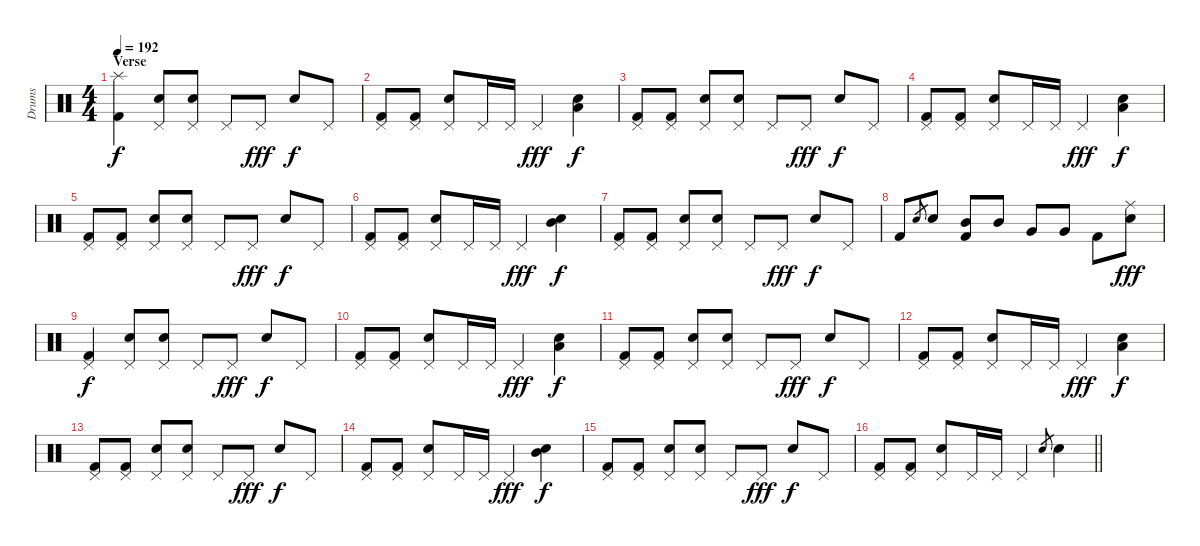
\track ("Drums" "Drums") {instrument percussion}
\staff {score}
\articulation defaults
\ts (4 4)
\section ("" "Verse")
\tempo 192
\clef neutral
\ks c
("Splash (hit)" "Kick (hit) 2").4{dy f} ("Pedal Hi-Hat (hit)" "Electric Snare (hit)").8 ("Pedal Hi-Hat (hit)" "Electric Snare (hit)").8 "Pedal Hi-Hat (hit)".8 "Pedal Hi-Hat (hit)".8{dy fff} "Electric Snare (hit)".8{dy f} "Pedal Hi-Hat (hit)".8 |
("Pedal Hi-Hat (hit)" "Kick (hit) 2").8 ("Pedal Hi-Hat (hit)" "Kick (hit) 2").8 ("Pedal Hi-Hat (hit)" "Electric Snare (hit)").8 "Pedal Hi-Hat (hit)".16 "Pedal Hi-Hat (hit)".16 "Pedal Hi-Hat (hit)".4{dy fff} ("Low Tom (hit)" "Electric Snare (hit)").4{dy f} |
("Pedal Hi-Hat (hit)" "Kick (hit) 2").8 ("Pedal Hi-Hat (hit)" "Kick (hit) 2").8 ("Pedal Hi-Hat (hit)" "Electric Snare (hit)").8 ("Pedal Hi-Hat (hit)" "Electric Snare (hit)").8 "Pedal Hi-Hat (hit)".8 "Pedal Hi-Hat (hit)".8{dy fff} "Electric Snare (hit)".8{dy f} "Pedal Hi-Hat (hit)".8 |
("Pedal Hi-Hat (hit)" "Kick (hit) 2").8 ("Pedal Hi-Hat (hit)" "Kick (hit) 2").8 ("Pedal Hi-Hat (hit)" "Electric Snare (hit)").8 "Pedal Hi-Hat (hit)".16 "Pedal Hi-Hat (hit)".16 "Pedal Hi-Hat (hit)".4{dy fff} ("Low Tom (hit)" "Electric Snare (hit)").4{dy f} |
("Pedal Hi-Hat (hit)" "Kick (hit) 2").8 ("Pedal Hi-Hat (hit)" "Kick (hit) 2").8 ("Pedal Hi-Hat (hit)" "Electric Snare (hit)").8 ("Pedal Hi-Hat (hit)" "Electric Snare (hit)").8 "Pedal Hi-Hat (hit)".8 "Pedal Hi-Hat (hit)".8{dy fff} "Electric Snare (hit)".8{dy f} "Pedal Hi-Hat (hit)".8 |
("Pedal Hi-Hat (hit)" "Kick (hit) 2").8 ("Pedal Hi-Hat (hit)" "Kick (hit) 2").8 ("Pedal Hi-Hat (hit)" "Electric Snare (hit)").8 "Pedal Hi-Hat (hit)".16 "Pedal Hi-Hat (hit)".16 "Pedal Hi-Hat (hit)".4{dy fff} ("Mid Tom (hit)" "Electric Snare (hit)").4{dy f} |
("Pedal Hi-Hat (hit)" "Kick (hit) 2").8 ("Pedal Hi-Hat (hit)" "Kick (hit) 2").8 ("Pedal Hi-Hat (hit)" "Electric Snare (hit)").8 ("Pedal Hi-Hat (hit)" "Electric Snare (hit)").8 "Pedal Hi-Hat (hit)".8 "Pedal Hi-Hat (hit)".8{dy fff} "Electric Snare (hit)".8{dy f} "Pedal Hi-Hat (hit)".8 |
"Kick (hit) 2".8 "Electric Snare (hit)".8{gr} "Electric Snare (hit)".8 ("Mid Tom (hit)" "Kick (hit) 2").8 "Mid Tom (hit)".8 "Very Low Tom (hit)".8 "Very Low Tom (hit)".8 "Kick (hit) 2".8 ("Ride (middle)" "Electric Snare (hit)").8{dy fff} |
("Pedal Hi-Hat (hit)" "Kick (hit) 2").4{dy f} ("Pedal Hi-Hat (hit)" "Electric Snare (hit)").8 ("Pedal Hi-Hat (hit)" "Electric Snare (hit)").8 "Pedal Hi-Hat (hit)".8 "Pedal Hi-Hat (hit)".8{dy fff} "Electric Snare (hit)".8{dy f} "Pedal Hi-Hat (hit)".8 |
("Pedal Hi-Hat (hit)" "Kick (hit) 2").8 ("Pedal Hi-Hat (hit)" "Kick (hit) 2").8 ("Pedal Hi-Hat (hit)" "Electric Snare (hit)").8 "Pedal Hi-Hat (hit)".16 "Pedal Hi-Hat (hit)".16 "Pedal Hi-Hat (hit)".4{dy fff} ("Low Tom (hit)" "Electric Snare (hit)").4{dy f} |
("Pedal Hi-Hat (hit)" "Kick (hit) 2").8 ("Pedal Hi-Hat (hit)" "Kick (hit) 2").8 ("Pedal Hi-Hat (hit)" "Electric Snare (hit)").8 ("Pedal Hi-Hat (hit)" "Electric Snare (hit)").8 "Pedal Hi-Hat (hit)".8 "Pedal Hi-Hat (hit)".8{dy fff} "Electric Snare (hit)".8{dy f} "Pedal Hi-Hat (hit)".8 |
("Pedal Hi-Hat (hit)" "Kick (hit) 2").8 ("Pedal Hi-Hat (hit)" "Kick (hit) 2").8 ("Pedal Hi-Hat (hit)" "Electric Snare (hit)").8 "Pedal Hi-Hat (hit)".16 "Pedal Hi-Hat (hit)".16 "Pedal Hi-Hat (hit)".4{dy fff} ("Low Tom (hit)" "Electric Snare (hit)").4{dy f} |
("Pedal Hi-Hat (hit)" "Kick (hit) 2").8 ("Pedal Hi-Hat (hit)" "Kick (hit) 2").8 ("Pedal Hi-Hat (hit)" "Electric Snare (hit)").8 ("Pedal Hi-Hat (hit)" "Electric Snare (hit)").8 "Pedal Hi-Hat (hit)".8 "Pedal Hi-Hat (hit)".8{dy fff} "Electric Snare (hit)".8{dy f} "Pedal Hi-Hat (hit)".8 |
("Pedal Hi-Hat (hit)" "Kick (hit) 2").8 ("Pedal Hi-Hat (hit)" "Kick (hit) 2").8 ("Pedal Hi-Hat (hit)" "Electric Snare (hit)").8 "Pedal Hi-Hat (hit)".16 "Pedal Hi-Hat (hit)".16 "Pedal Hi-Hat (hit)".4{dy fff} ("Mid Tom (hit)" "Electric Snare (hit)").4{dy f} |
("Pedal Hi-Hat (hit)" "Kick (hit) 2").8 ("Pedal Hi-Hat (hit)" "Kick (hit) 2").8 ("Pedal Hi-Hat (hit)" "Electric Snare (hit)").8 ("Pedal Hi-Hat (hit)" "Electric Snare (hit)").8 "Pedal Hi-Hat (hit)".8 "Pedal Hi-Hat (hit)".8{dy fff} "Electric Snare (hit)".8{dy f} "Pedal Hi-Hat (hit)".8 |
\barLineRight lightlight
("Pedal Hi-Hat (hit)" "Kick (hit) 2").8 ("Pedal Hi-Hat (hit)" "Kick (hit) 2").8 ("Pedal Hi-Hat (hit)" "Electric Snare (hit)").8 "Pedal Hi-Hat (hit)".16 "Pedal Hi-Hat (hit)".16 "Pedal Hi-Hat (hit)".4 "Electric Snare (hit)".8{gr} "Electric Snare (hit)".4
